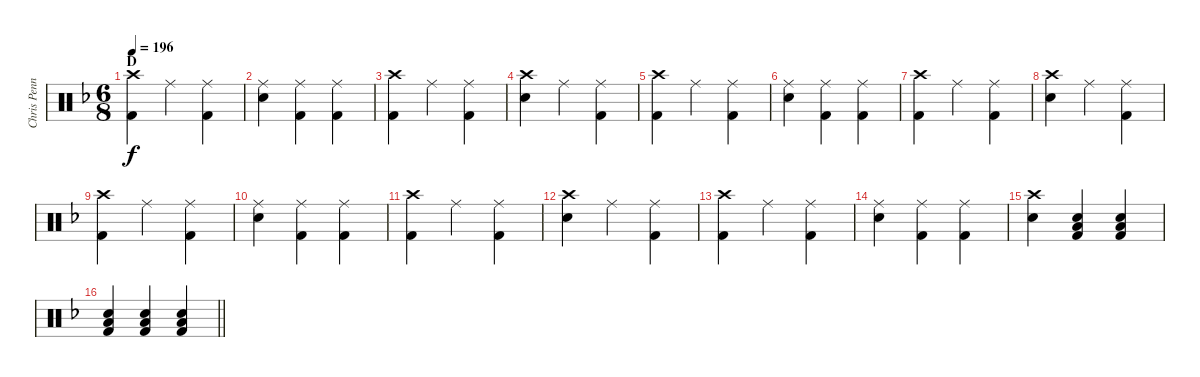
\track ("Chris Pennie/Taylor Hawkins - Drum" "Chris Penn") {instrument percussion}
\staff {score}
\articulation defaults
\ts (6 8)
\section ("" "D")
\tempo 196
\clef neutral
\ks f
("Crash high (hit)" "Kick (hit) 2").4{dy f} "Ride (middle)".4 ("Ride (middle)" "Kick (hit) 2").4 |
("Ride (middle)" "Electric Snare (hit)").4 ("Ride (middle)" "Kick (hit) 2").4 ("Ride (middle)" "Kick (hit) 2").4 |
("Crash high (hit)" "Kick (hit) 2").4 "Ride (middle)".4 ("Ride (middle)" "Kick (hit) 2").4 |
("Crash high (hit)" "Electric Snare (hit)").4 "Ride (middle)".4 ("Ride (middle)" "Kick (hit) 2").4 |
("Crash high (hit)" "Kick (hit) 2").4 "Ride (middle)".4 ("Ride (middle)" "Kick (hit) 2").4 |
("Ride (middle)" "Electric Snare (hit)").4 ("Ride (middle)" "Kick (hit) 2").4 ("Ride (middle)" "Kick (hit) 2").4 |
("Crash high (hit)" "Kick (hit) 2").4 "Ride (middle)".4 ("Ride (middle)" "Kick (hit) 2").4 |
("Crash high (hit)" "Electric Snare (hit)").4 "Ride (middle)".4 ("Ride (middle)" "Kick (hit) 2").4 |
("Crash high (hit)" "Kick (hit) 2").4 "Ride (middle)".4 ("Ride (middle)" "Kick (hit) 2").4 |
("Ride (middle)" "Electric Snare (hit)").4 ("Ride (middle)" "Kick (hit) 2").4 ("Ride (middle)" "Kick (hit) 2").4 |
("Crash high (hit)" "Kick (hit) 2").4 "Ride (middle)".4 ("Ride (middle)" "Kick (hit) 2").4 |
("Crash high (hit)" "Electric Snare (hit)").4 "Ride (middle)".4 ("Ride (middle)" "Kick (hit) 2").4 |
("Crash high (hit)" "Kick (hit) 2").4 "Ride (middle)".4 ("Ride (middle)" "Kick (hit) 2").4 |
("Ride (middle)" "Electric Snare (hit)").4 ("Ride (middle)" "Kick (hit) 2").4 ("Ride (middle)" "Kick (hit) 2").4 |
("Crash high (hit)" "Electric Snare (hit)").4 ("Electric Snare (hit)" "Low Floor Tom (hit)" "Kick (hit) 2").4 ("Electric Snare (hit)" "Low Floor Tom (hit)" "Kick (hit) 2").4 |
\barLineRight lightlight
("Electric Snare (hit)" "Low Floor Tom (hit)" "Kick (hit) 2").4 ("Electric Snare (hit)" "Low Floor Tom (hit)" "Kick (hit) 2").4 ("Electric Snare (hit)" "Low Floor Tom (hit)" "Kick (hit) 2").4
